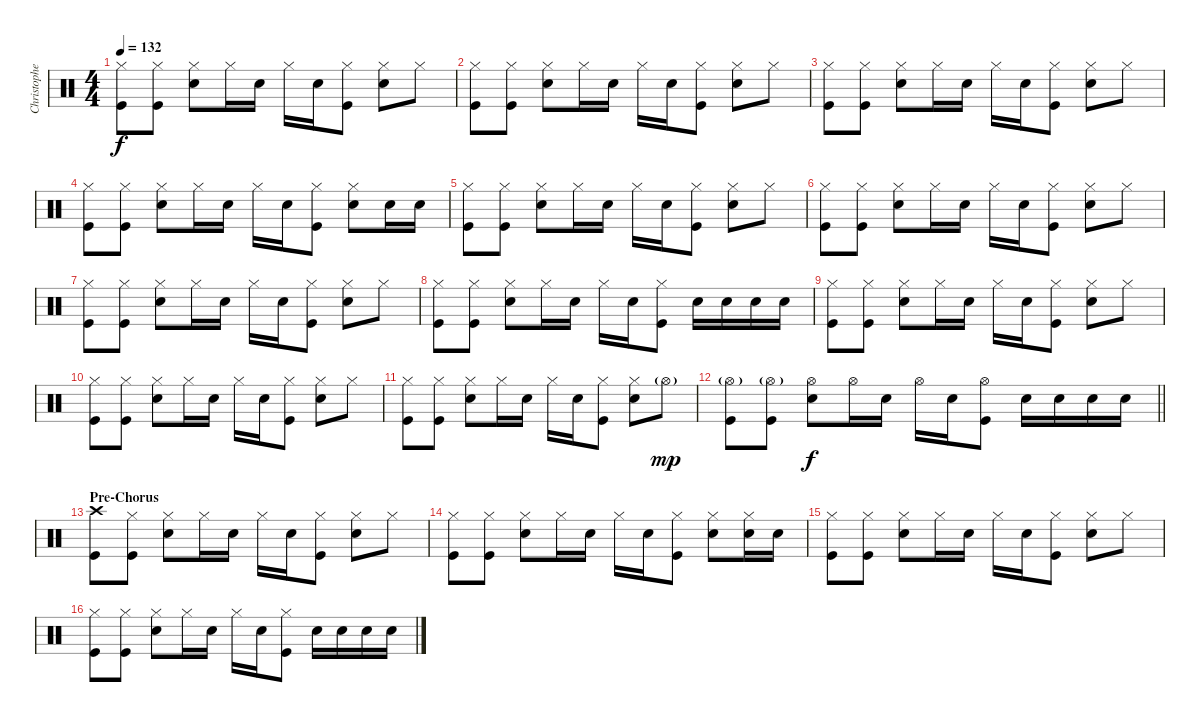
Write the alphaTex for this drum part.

\track ("Christopher - Drums" "Christophe") {instrument percussion}
\staff {score}
\articulation defaults
\ts (4 4)
\tempo 132
\clef neutral
\ks c
("Hi-Hat (closed)" "Kick (hit)").8{dy f} ("Hi-Hat (closed)" "Kick (hit)").8 ("Hi-Hat (closed)" "Snare (hit) 2").8 "Hi-Hat (closed)".16 "Snare (hit) 2".16 "Hi-Hat (closed)".16 "Snare (hit) 2".16 ("Hi-Hat (closed)" "Kick (hit)").8 ("Hi-Hat (closed)" "Snare (hit) 2").8 "Hi-Hat (closed)".8 |
("Hi-Hat (closed)" "Kick (hit)").8 ("Hi-Hat (closed)" "Kick (hit)").8 ("Hi-Hat (closed)" "Snare (hit) 2").8 "Hi-Hat (closed)".16 "Snare (hit) 2".16 "Hi-Hat (closed)".16 "Snare (hit) 2".16 ("Hi-Hat (closed)" "Kick (hit)").8 ("Hi-Hat (closed)" "Snare (hit) 2").8 "Hi-Hat (closed)".8 |
("Hi-Hat (closed)" "Kick (hit)").8 ("Hi-Hat (closed)" "Kick (hit)").8 ("Hi-Hat (closed)" "Snare (hit) 2").8 "Hi-Hat (closed)".16 "Snare (hit) 2".16 "Hi-Hat (closed)".16 "Snare (hit) 2".16 ("Hi-Hat (closed)" "Kick (hit)").8 ("Hi-Hat (closed)" "Snare (hit) 2").8 "Hi-Hat (closed)".8 |
("Hi-Hat (closed)" "Kick (hit)").8 ("Hi-Hat (closed)" "Kick (hit)").8 ("Hi-Hat (closed)" "Snare (hit) 2").8 "Hi-Hat (closed)".16 "Snare (hit) 2".16 "Hi-Hat (closed)".16 "Snare (hit) 2".16 ("Hi-Hat (closed)" "Kick (hit)").8 ("Hi-Hat (closed)" "Snare (hit) 2").8 "Snare (hit) 2".16 "Snare (hit) 2".16 |
("Hi-Hat (closed)" "Kick (hit)").8 ("Hi-Hat (closed)" "Kick (hit)").8 ("Hi-Hat (closed)" "Snare (hit) 2").8 "Hi-Hat (closed)".16 "Snare (hit) 2".16 "Hi-Hat (closed)".16 "Snare (hit) 2".16 ("Hi-Hat (closed)" "Kick (hit)").8 ("Hi-Hat (closed)" "Snare (hit) 2").8 "Hi-Hat (closed)".8 |
("Hi-Hat (closed)" "Kick (hit)").8 ("Hi-Hat (closed)" "Kick (hit)").8 ("Hi-Hat (closed)" "Snare (hit) 2").8 "Hi-Hat (closed)".16 "Snare (hit) 2".16 "Hi-Hat (closed)".16 "Snare (hit) 2".16 ("Hi-Hat (closed)" "Kick (hit)").8 ("Hi-Hat (closed)" "Snare (hit) 2").8 "Hi-Hat (closed)".8 |
("Hi-Hat (closed)" "Kick (hit)").8 ("Hi-Hat (closed)" "Kick (hit)").8 ("Hi-Hat (closed)" "Snare (hit) 2").8 "Hi-Hat (closed)".16 "Snare (hit) 2".16 "Hi-Hat (closed)".16 "Snare (hit) 2".16 ("Hi-Hat (closed)" "Kick (hit)").8 ("Hi-Hat (closed)" "Snare (hit) 2").8 "Hi-Hat (closed)".8 |
("Hi-Hat (closed)" "Kick (hit)").8 ("Hi-Hat (closed)" "Kick (hit)").8 ("Hi-Hat (closed)" "Snare (hit) 2").8 "Hi-Hat (closed)".16 "Snare (hit) 2".16 "Hi-Hat (closed)".16 "Snare (hit) 2".16 ("Hi-Hat (closed)" "Kick (hit)").8 "Snare (hit) 2".16 "Snare (hit) 2".16 "Snare (hit) 2".16 "Snare (hit) 2".16 |
("Hi-Hat (closed)" "Kick (hit)").8 ("Hi-Hat (closed)" "Kick (hit)").8 ("Hi-Hat (closed)" "Snare (hit) 2").8 "Hi-Hat (closed)".16 "Snare (hit) 2".16 "Hi-Hat (closed)".16 "Snare (hit) 2".16 ("Hi-Hat (closed)" "Kick (hit)").8 ("Hi-Hat (closed)" "Snare (hit) 2").8 "Hi-Hat (closed)".8 |
("Hi-Hat (closed)" "Kick (hit)").8 ("Hi-Hat (closed)" "Kick (hit)").8 ("Hi-Hat (closed)" "Snare (hit) 2").8 "Hi-Hat (closed)".16 "Snare (hit) 2".16 "Hi-Hat (closed)".16 "Snare (hit) 2".16 ("Hi-Hat (closed)" "Kick (hit)").8 ("Hi-Hat (closed)" "Snare (hit) 2").8 "Hi-Hat (closed)".8 |
("Hi-Hat (closed)" "Kick (hit)").8 ("Hi-Hat (closed)" "Kick (hit)").8 ("Hi-Hat (closed)" "Snare (hit) 2").8 "Hi-Hat (closed)".16 "Snare (hit) 2".16 "Hi-Hat (closed)".16 "Snare (hit) 2".16 ("Hi-Hat (closed)" "Kick (hit)").8 ("Hi-Hat (closed)" "Snare (hit) 2").8 "Hi-Hat (open)"{g}.8{dy mp} |
\barLineRight lightlight
("Hi-Hat (open)"{g} "Kick (hit)").8 ("Hi-Hat (open)"{g} "Kick (hit)").8 ("Hi-Hat (open)" "Snare (hit) 2").8{dy f} "Hi-Hat (open)".16 "Snare (hit) 2".16 "Hi-Hat (open)".16 "Snare (hit) 2".16 ("Hi-Hat (open)" "Kick (hit)").8 "Snare (hit) 2".16 "Snare (hit) 2".16 "Snare (hit) 2".16 "Snare (hit) 2".16 |
\section ("" "Pre-Chorus")
("Crash high (hit)" "Kick (hit)").8 ("Hi-Hat (closed)" "Kick (hit)").8 ("Hi-Hat (closed)" "Snare (hit) 2").8 "Hi-Hat (closed)".16 "Snare (hit) 2".16 "Hi-Hat (closed)".16 "Snare (hit) 2".16 ("Hi-Hat (closed)" "Kick (hit)").8 ("Hi-Hat (closed)" "Snare (hit) 2").8 "Hi-Hat (closed)".8 |
("Hi-Hat (closed)" "Kick (hit)").8 ("Hi-Hat (closed)" "Kick (hit)").8 ("Hi-Hat (closed)" "Snare (hit) 2").8 "Hi-Hat (closed)".16 "Snare (hit) 2".16 "Hi-Hat (closed)".16 "Snare (hit) 2".16 ("Hi-Hat (closed)" "Kick (hit)").8 ("Hi-Hat (closed)" "Snare (hit) 2").8 ("Hi-Hat (closed)" "Snare (hit) 2").16 "Snare (hit) 2".16 |
("Hi-Hat (closed)" "Kick (hit)").8 ("Hi-Hat (closed)" "Kick (hit)").8 ("Hi-Hat (closed)" "Snare (hit) 2").8 "Hi-Hat (closed)".16 "Snare (hit) 2".16 "Hi-Hat (closed)".16 "Snare (hit) 2".16 ("Hi-Hat (closed)" "Kick (hit)").8 ("Hi-Hat (closed)" "Snare (hit) 2").8 "Hi-Hat (closed)".8 |
("Hi-Hat (closed)" "Kick (hit)").8 ("Hi-Hat (closed)" "Kick (hit)").8 ("Hi-Hat (closed)" "Snare (hit) 2").8 "Hi-Hat (closed)".16 "Snare (hit) 2".16 "Hi-Hat (closed)".16 "Snare (hit) 2".16 ("Hi-Hat (closed)" "Kick (hit)").8 "Snare (hit) 2".16 "Snare (hit) 2".16 "Snare (hit) 2".16 "Snare (hit) 2".16
